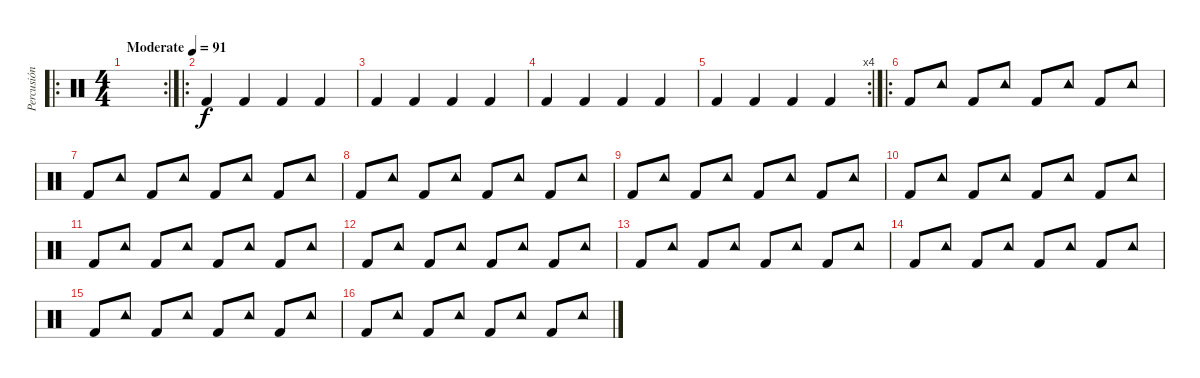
\track ("Percusión" "Percusión") {instrument percussion}
\staff {score}
\articulation defaults
\ro
\rc 2
\ts (4 4)
\tempo (91 "Moderate")
\clef neutral
\ks c
|
\ro "Kick (hit) 2".4 "Kick (hit) 2".4 "Kick (hit) 2".4 "Kick (hit) 2".4
|
"Kick (hit) 2".4 "Kick (hit) 2".4 "Kick (hit) 2".4 "Kick (hit) 2".4 |
"Kick (hit) 2".4 "Kick (hit) 2".4 "Kick (hit) 2".4 "Kick (hit) 2".4 |
\rc 4 "Kick (hit) 2".4 "Kick (hit) 2".4 "Kick (hit) 2".4 "Kick (hit) 2".4
|
\ro "Kick (hit) 2".8 "Tambourine (hit)".8 "Kick (hit) 2".8 "Tambourine (hit)".8 "Kick (hit) 2".8 "Tambourine (hit)".8 "Kick (hit) 2".8 "Tambourine (hit)".8
|
"Kick (hit) 2".8 "Tambourine (hit)".8 "Kick (hit) 2".8 "Tambourine (hit)".8 "Kick (hit) 2".8 "Tambourine (hit)".8 "Kick (hit) 2".8 "Tambourine (hit)".8 |
"Kick (hit) 2".8 "Tambourine (hit)".8 "Kick (hit) 2".8 "Tambourine (hit)".8 "Kick (hit) 2".8 "Tambourine (hit)".8 "Kick (hit) 2".8 "Tambourine (hit)".8 |
"Kick (hit) 2".8 "Tambourine (hit)".8 "Kick (hit) 2".8 "Tambourine (hit)".8 "Kick (hit) 2".8 "Tambourine (hit)".8 "Kick (hit) 2".8 "Tambourine (hit)".8 |
"Kick (hit) 2".8 "Tambourine (hit)".8 "Kick (hit) 2".8 "Tambourine (hit)".8 "Kick (hit) 2".8 "Tambourine (hit)".8 "Kick (hit) 2".8 "Tambourine (hit)".8 |
"Kick (hit) 2".8 "Tambourine (hit)".8 "Kick (hit) 2".8 "Tambourine (hit)".8 "Kick (hit) 2".8 "Tambourine (hit)".8 "Kick (hit) 2".8 "Tambourine (hit)".8 |
"Kick (hit) 2".8 "Tambourine (hit)".8 "Kick (hit) 2".8 "Tambourine (hit)".8 "Kick (hit) 2".8 "Tambourine (hit)".8 "Kick (hit) 2".8 "Tambourine (hit)".8 |
"Kick (hit) 2".8 "Tambourine (hit)".8 "Kick (hit) 2".8 "Tambourine (hit)".8 "Kick (hit) 2".8 "Tambourine (hit)".8 "Kick (hit) 2".8 "Tambourine (hit)".8 |
"Kick (hit) 2".8 "Tambourine (hit)".8 "Kick (hit) 2".8 "Tambourine (hit)".8 "Kick (hit) 2".8 "Tambourine (hit)".8 "Kick (hit) 2".8 "Tambourine (hit)".8 |
"Kick (hit) 2".8 "Tambourine (hit)".8 "Kick (hit) 2".8 "Tambourine (hit)".8 "Kick (hit) 2".8 "Tambourine (hit)".8 "Kick (hit) 2".8 "Tambourine (hit)".8 |
"Kick (hit) 2".8 "Tambourine (hit)".8 "Kick (hit) 2".8 "Tambourine (hit)".8 "Kick (hit) 2".8 "Tambourine (hit)".8 "Kick (hit) 2".8 "Tambourine (hit)".8
